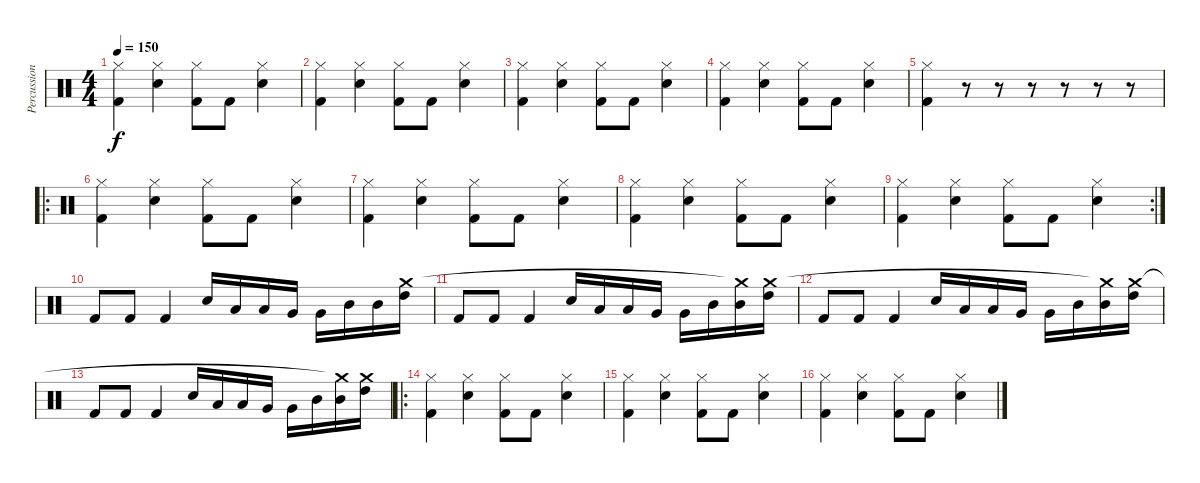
\track ("Percussions" "Percussion") {instrument percussion}
\staff {score}
\articulation defaults
\ts (4 4)
\tempo 150
\clef neutral
\ks c
("Kick (hit) 2" "Hi-Hat (closed)").4{dy f} ("Electric Snare (hit)" "Hi-Hat (closed)").4 ("Kick (hit) 2" "Hi-Hat (closed)").8 "Kick (hit) 2".8 ("Electric Snare (hit)" "Hi-Hat (closed)").4 |
("Kick (hit) 2" "Hi-Hat (closed)").4 ("Electric Snare (hit)" "Hi-Hat (closed)").4 ("Kick (hit) 2" "Hi-Hat (closed)").8 "Kick (hit) 2".8 ("Electric Snare (hit)" "Hi-Hat (closed)").4 |
("Kick (hit) 2" "Hi-Hat (closed)").4 ("Electric Snare (hit)" "Hi-Hat (closed)").4 ("Kick (hit) 2" "Hi-Hat (closed)").8 "Kick (hit) 2".8 ("Electric Snare (hit)" "Hi-Hat (closed)").4 |
("Kick (hit) 2" "Hi-Hat (closed)").4 ("Electric Snare (hit)" "Hi-Hat (closed)").4 ("Kick (hit) 2" "Hi-Hat (closed)").8 "Kick (hit) 2".8 ("Electric Snare (hit)" "Hi-Hat (closed)").4 |
("Kick (hit) 2" "Hi-Hat (closed)").4 r.8 r.8 r.8 r.8 r.8 r.8 |
\ro
("Kick (hit) 2" "Hi-Hat (closed)").4 ("Electric Snare (hit)" "Hi-Hat (closed)").4 ("Kick (hit) 2" "Hi-Hat (closed)").8 "Kick (hit) 2".8 ("Electric Snare (hit)" "Hi-Hat (closed)").4 |
("Kick (hit) 2" "Hi-Hat (closed)").4 ("Electric Snare (hit)" "Hi-Hat (closed)").4 ("Kick (hit) 2" "Hi-Hat (closed)").8 "Kick (hit) 2".8 ("Electric Snare (hit)" "Hi-Hat (closed)").4 |
("Kick (hit) 2" "Hi-Hat (closed)").4 ("Electric Snare (hit)" "Hi-Hat (closed)").4 ("Kick (hit) 2" "Hi-Hat (closed)").8 "Kick (hit) 2".8 ("Electric Snare (hit)" "Hi-Hat (closed)").4 |
\rc 2
("Kick (hit) 2" "Hi-Hat (closed)").4 ("Electric Snare (hit)" "Hi-Hat (closed)").4 ("Kick (hit) 2" "Hi-Hat (closed)").8 "Kick (hit) 2".8 ("Electric Snare (hit)" "Hi-Hat (closed)").4 |
"Kick (hit) 2".8 "Kick (hit) 2".8 "Kick (hit) 2".4 "Electric Snare (hit)".16 "Low Tom (hit)".16 "Low Tom (hit)".16 "Very Low Tom (hit)".16 "Very Low Tom (hit)".16 "Mid Tom (hit)".16 "Mid Tom (hit)".16 ("High Tom (hit)" "Crash medium (hit)").16 |
"Kick (hit) 2".8 "Kick (hit) 2".8 "Kick (hit) 2".4 "Electric Snare (hit)".16 "Low Tom (hit)".16 "Low Tom (hit)".16 "Very Low Tom (hit)".16 "Very Low Tom (hit)".16 "Mid Tom (hit)".16 ("Mid Tom (hit)" "Crash medium (hit)"{t}).16 ("High Tom (hit)" "Crash medium (hit)").16 |
"Kick (hit) 2".8 "Kick (hit) 2".8 "Kick (hit) 2".4 "Electric Snare (hit)".16 "Low Tom (hit)".16 "Low Tom (hit)".16 "Very Low Tom (hit)".16 "Very Low Tom (hit)".16 "Mid Tom (hit)".16 ("Mid Tom (hit)" "Crash medium (hit)"{t}).16 ("High Tom (hit)" "Crash medium (hit)").16 |
"Kick (hit) 2".8 "Kick (hit) 2".8 "Kick (hit) 2".4 "Electric Snare (hit)".16 "Low Tom (hit)".16 "Low Tom (hit)".16 "Very Low Tom (hit)".16 "Very Low Tom (hit)".16 "Mid Tom (hit)".16 ("Mid Tom (hit)" "Crash medium (hit)"{t}).16 ("High Tom (hit)" "Crash medium (hit)").16 |
\ro
("Kick (hit) 2" "Hi-Hat (closed)").4 ("Electric Snare (hit)" "Hi-Hat (closed)").4 ("Kick (hit) 2" "Hi-Hat (closed)").8 "Kick (hit) 2".8 ("Electric Snare (hit)" "Hi-Hat (closed)").4 |
("Kick (hit) 2" "Hi-Hat (closed)").4 ("Electric Snare (hit)" "Hi-Hat (closed)").4 ("Kick (hit) 2" "Hi-Hat (closed)").8 "Kick (hit) 2".8 ("Electric Snare (hit)" "Hi-Hat (closed)").4 |
("Kick (hit) 2" "Hi-Hat (closed)").4 ("Electric Snare (hit)" "Hi-Hat (closed)").4 ("Kick (hit) 2" "Hi-Hat (closed)").8 "Kick (hit) 2".8 ("Electric Snare (hit)" "Hi-Hat (closed)").4
